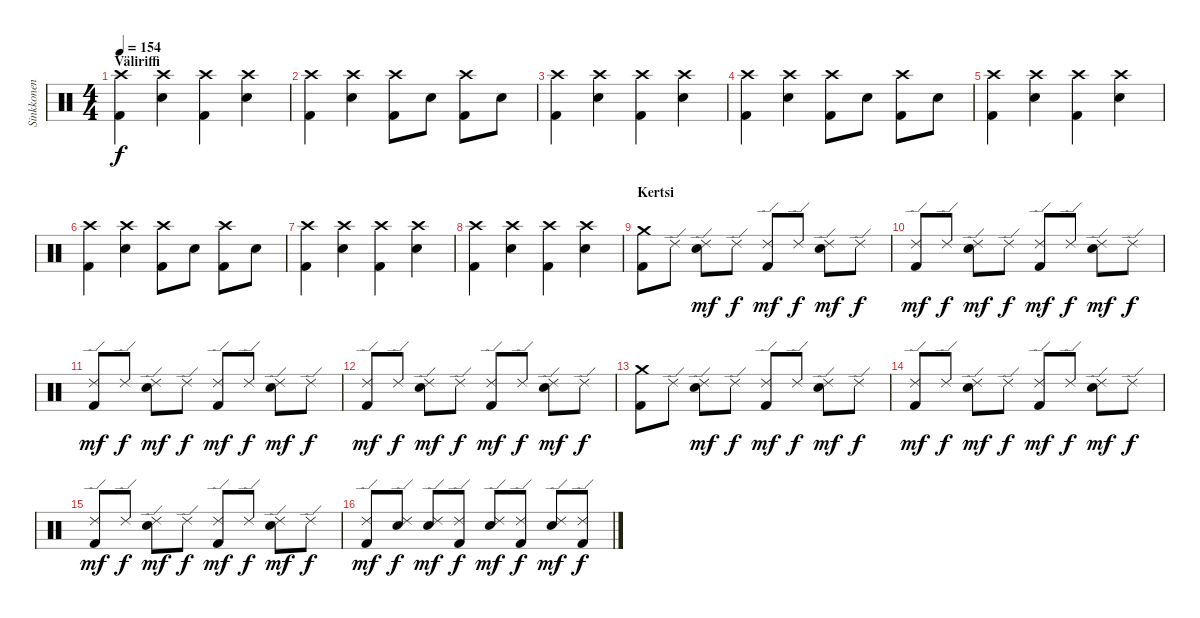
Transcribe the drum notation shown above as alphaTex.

\track ("Sinkkonen" "Sinkkonen") {instrument percussion}
\staff {score}
\articulation defaults
\ts (4 4)
\section ("" "Väliriffi")
\tempo 154
\clef neutral
\ks c
("Kick (hit) 2" "Crash high (hit)").4{dy f} ("Crash high (hit)" "Snare (hit) 2").4 ("Kick (hit) 2" "Crash high (hit)").4 ("Crash high (hit)" "Snare (hit) 2").4 |
("Kick (hit) 2" "Crash high (hit)").4 ("Crash high (hit)" "Snare (hit) 2").4 ("Kick (hit) 2" "Crash high (hit)").8 "Snare (hit) 2".8 ("Kick (hit) 2" "Crash high (hit)").8 "Snare (hit) 2".8 |
("Kick (hit) 2" "Crash high (hit)").4 ("Crash high (hit)" "Snare (hit) 2").4 ("Kick (hit) 2" "Crash high (hit)").4 ("Crash high (hit)" "Snare (hit) 2").4 |
("Kick (hit) 2" "Crash high (hit)").4 ("Crash high (hit)" "Snare (hit) 2").4 ("Kick (hit) 2" "Crash high (hit)").8 "Snare (hit) 2".8 ("Kick (hit) 2" "Crash high (hit)").8 "Snare (hit) 2".8 |
("Kick (hit) 2" "Crash high (hit)").4 ("Crash high (hit)" "Snare (hit) 2").4 ("Kick (hit) 2" "Crash high (hit)").4 ("Crash high (hit)" "Snare (hit) 2").4 |
("Kick (hit) 2" "Crash high (hit)").4 ("Crash high (hit)" "Snare (hit) 2").4 ("Kick (hit) 2" "Crash high (hit)").8 "Snare (hit) 2".8 ("Kick (hit) 2" "Crash high (hit)").8 "Snare (hit) 2".8 |
("Kick (hit) 2" "Crash high (hit)").4 ("Crash high (hit)" "Snare (hit) 2").4 ("Kick (hit) 2" "Crash high (hit)").4 ("Crash high (hit)" "Snare (hit) 2").4 |
("Kick (hit) 2" "Crash high (hit)").4 ("Crash high (hit)" "Snare (hit) 2").4 ("Kick (hit) 2" "Crash high (hit)").4 ("Crash high (hit)" "Snare (hit) 2").4 |
\section ("" "Kertsi")
("Kick (hit) 2" "Crash medium (hit)").8 "Ride (edge) 2".8 ("Ride (edge) 2" "Snare (hit) 2").8{dy mf} "Ride (edge) 2".8{dy f} ("Kick (hit) 2" "Ride (edge) 2").8{dy mf} "Ride (edge) 2".8{dy f} ("Ride (edge) 2" "Snare (hit) 2").8{dy mf} "Ride (edge) 2".8{dy f} |
("Kick (hit) 2" "Ride (edge) 2").8{dy mf} "Ride (edge) 2".8{dy f} ("Ride (edge) 2" "Snare (hit) 2").8{dy mf} "Ride (edge) 2".8{dy f} ("Kick (hit) 2" "Ride (edge) 2").8{dy mf} "Ride (edge) 2".8{dy f} ("Ride (edge) 2" "Snare (hit) 2").8{dy mf} "Ride (edge) 2".8{dy f} |
("Kick (hit) 2" "Ride (edge) 2").8{dy mf} "Ride (edge) 2".8{dy f} ("Ride (edge) 2" "Snare (hit) 2").8{dy mf} "Ride (edge) 2".8{dy f} ("Kick (hit) 2" "Ride (edge) 2").8{dy mf} "Ride (edge) 2".8{dy f} ("Ride (edge) 2" "Snare (hit) 2").8{dy mf} "Ride (edge) 2".8{dy f} |
("Kick (hit) 2" "Ride (edge) 2").8{dy mf} "Ride (edge) 2".8{dy f} ("Ride (edge) 2" "Snare (hit) 2").8{dy mf} "Ride (edge) 2".8{dy f} ("Kick (hit) 2" "Ride (edge) 2").8{dy mf} "Ride (edge) 2".8{dy f} ("Ride (edge) 2" "Snare (hit) 2").8{dy mf} "Ride (edge) 2".8{dy f} |
("Kick (hit) 2" "Crash medium (hit)").8 "Ride (edge) 2".8 ("Ride (edge) 2" "Snare (hit) 2").8{dy mf} "Ride (edge) 2".8{dy f} ("Kick (hit) 2" "Ride (edge) 2").8{dy mf} "Ride (edge) 2".8{dy f} ("Ride (edge) 2" "Snare (hit) 2").8{dy mf} "Ride (edge) 2".8{dy f} |
("Kick (hit) 2" "Ride (edge) 2").8{dy mf} "Ride (edge) 2".8{dy f} ("Ride (edge) 2" "Snare (hit) 2").8{dy mf} "Ride (edge) 2".8{dy f} ("Kick (hit) 2" "Ride (edge) 2").8{dy mf} "Ride (edge) 2".8{dy f} ("Ride (edge) 2" "Snare (hit) 2").8{dy mf} "Ride (edge) 2".8{dy f} |
("Kick (hit) 2" "Ride (edge) 2").8{dy mf} "Ride (edge) 2".8{dy f} ("Ride (edge) 2" "Snare (hit) 2").8{dy mf} "Ride (edge) 2".8{dy f} ("Kick (hit) 2" "Ride (edge) 2").8{dy mf} "Ride (edge) 2".8{dy f} ("Ride (edge) 2" "Snare (hit) 2").8{dy mf} "Ride (edge) 2".8{dy f} |
("Kick (hit) 2" "Ride (edge) 2").8{dy mf} ("Ride (edge) 2" "Snare (hit) 2").8{dy f} ("Ride (edge) 2" "Snare (hit) 2").8{dy mf} ("Kick (hit) 2" "Ride (edge) 2").8{dy f} ("Ride (edge) 2" "Snare (hit) 2").8{dy mf} ("Kick (hit) 2" "Ride (edge) 2").8{dy f} ("Ride (edge) 2" "Snare (hit) 2").8{dy mf} ("Kick (hit) 2" "Ride (edge) 2").8{dy f}
